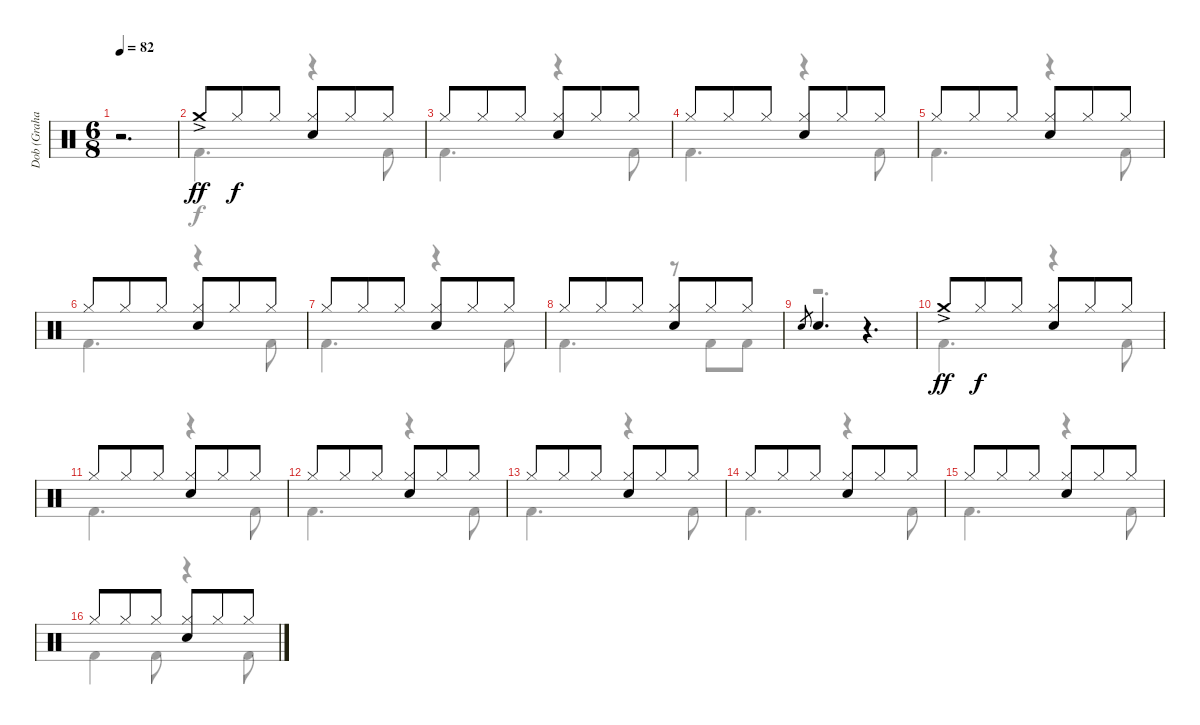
\track ("Dob (Graham Walker)" "Dob (Graha") {instrument percussion}
\staff {score}
\articulation defaults
\voice
\ts (6 8)
\tempo 82
\clef neutral
\ks c
r.2{d dy ff} |
"Crash medium (hit)"{ac}.8 "Hi-Hat (closed)".8{dy f} "Hi-Hat (closed)".8 ("Hi-Hat (closed)" "Electric Snare (hit)").8 "Hi-Hat (closed)".8 "Hi-Hat (closed)".8 |
"Hi-Hat (closed)".8 "Hi-Hat (closed)".8 "Hi-Hat (closed)".8 ("Hi-Hat (closed)" "Electric Snare (hit)").8 "Hi-Hat (closed)".8 "Hi-Hat (closed)".8 |
"Hi-Hat (closed)".8 "Hi-Hat (closed)".8 "Hi-Hat (closed)".8 ("Hi-Hat (closed)" "Electric Snare (hit)").8 "Hi-Hat (closed)".8 "Hi-Hat (closed)".8 |
"Hi-Hat (closed)".8 "Hi-Hat (closed)".8 "Hi-Hat (closed)".8 ("Hi-Hat (closed)" "Electric Snare (hit)").8 "Hi-Hat (closed)".8 "Hi-Hat (closed)".8 |
"Hi-Hat (closed)".8 "Hi-Hat (closed)".8 "Hi-Hat (closed)".8 ("Hi-Hat (closed)" "Electric Snare (hit)").8 "Hi-Hat (closed)".8 "Hi-Hat (closed)".8 |
"Hi-Hat (closed)".8 "Hi-Hat (closed)".8 "Hi-Hat (closed)".8 ("Hi-Hat (closed)" "Electric Snare (hit)").8 "Hi-Hat (closed)".8 "Hi-Hat (closed)".8 |
"Hi-Hat (closed)".8 "Hi-Hat (closed)".8 "Hi-Hat (closed)".8 ("Hi-Hat (closed)" "Electric Snare (hit)").8 "Hi-Hat (closed)".8 "Hi-Hat (closed)".8 |
"Electric Snare (hit)".8{gr} "Electric Snare (hit)".4{d} r.4{d} |
"Crash medium (hit)"{ac}.8{dy ff} "Hi-Hat (closed)".8{dy f} "Hi-Hat (closed)".8 ("Hi-Hat (closed)" "Electric Snare (hit)").8 "Hi-Hat (closed)".8 "Hi-Hat (closed)".8 |
"Hi-Hat (closed)".8 "Hi-Hat (closed)".8 "Hi-Hat (closed)".8 ("Hi-Hat (closed)" "Electric Snare (hit)").8 "Hi-Hat (closed)".8 "Hi-Hat (closed)".8 |
"Hi-Hat (closed)".8 "Hi-Hat (closed)".8 "Hi-Hat (closed)".8 ("Hi-Hat (closed)" "Electric Snare (hit)").8 "Hi-Hat (closed)".8 "Hi-Hat (closed)".8 |
"Hi-Hat (closed)".8 "Hi-Hat (closed)".8 "Hi-Hat (closed)".8 ("Hi-Hat (closed)" "Electric Snare (hit)").8 "Hi-Hat (closed)".8 "Hi-Hat (closed)".8 |
"Hi-Hat (closed)".8 "Hi-Hat (closed)".8 "Hi-Hat (closed)".8 ("Hi-Hat (closed)" "Electric Snare (hit)").8 "Hi-Hat (closed)".8 "Hi-Hat (closed)".8 |
"Hi-Hat (closed)".8 "Hi-Hat (closed)".8 "Hi-Hat (closed)".8 ("Hi-Hat (closed)" "Electric Snare (hit)").8 "Hi-Hat (closed)".8 "Hi-Hat (closed)".8 |
"Hi-Hat (closed)".8 "Hi-Hat (closed)".8 "Hi-Hat (closed)".8 ("Hi-Hat (closed)" "Electric Snare (hit)").8 "Hi-Hat (closed)".8 "Hi-Hat (closed)".8
\voice
\clef neutral
\ottava regular
\simile none
\ks c
r.2{d dy f} |
"Kick (hit) 2".4{d} r.4 "Kick (hit) 2".8 |
"Kick (hit) 2".4{d} r.4 "Kick (hit) 2".8 |
"Kick (hit) 2".4{d} r.4 "Kick (hit) 2".8 |
"Kick (hit) 2".4{d} r.4 "Kick (hit) 2".8 |
"Kick (hit) 2".4{d} r.4 "Kick (hit) 2".8 |
"Kick (hit) 2".4{d} r.4 "Kick (hit) 2".8 |
"Kick (hit) 2".4{d} r.8 "Kick (hit) 2".8 "Kick (hit) 2".8 |
r.2{d} |
"Kick (hit) 2".4{d} r.4 "Kick (hit) 2".8 |
"Kick (hit) 2".4{d} r.4 "Kick (hit) 2".8 |
"Kick (hit) 2".4{d} r.4 "Kick (hit) 2".8 |
"Kick (hit) 2".4{d} r.4 "Kick (hit) 2".8 |
"Kick (hit) 2".4{d} r.4 "Kick (hit) 2".8 |
"Kick (hit) 2".4{d} r.4 "Kick (hit) 2".8 |
"Kick (hit) 2".4 "Kick (hit) 2".8 r.4 "Kick (hit) 2".8
